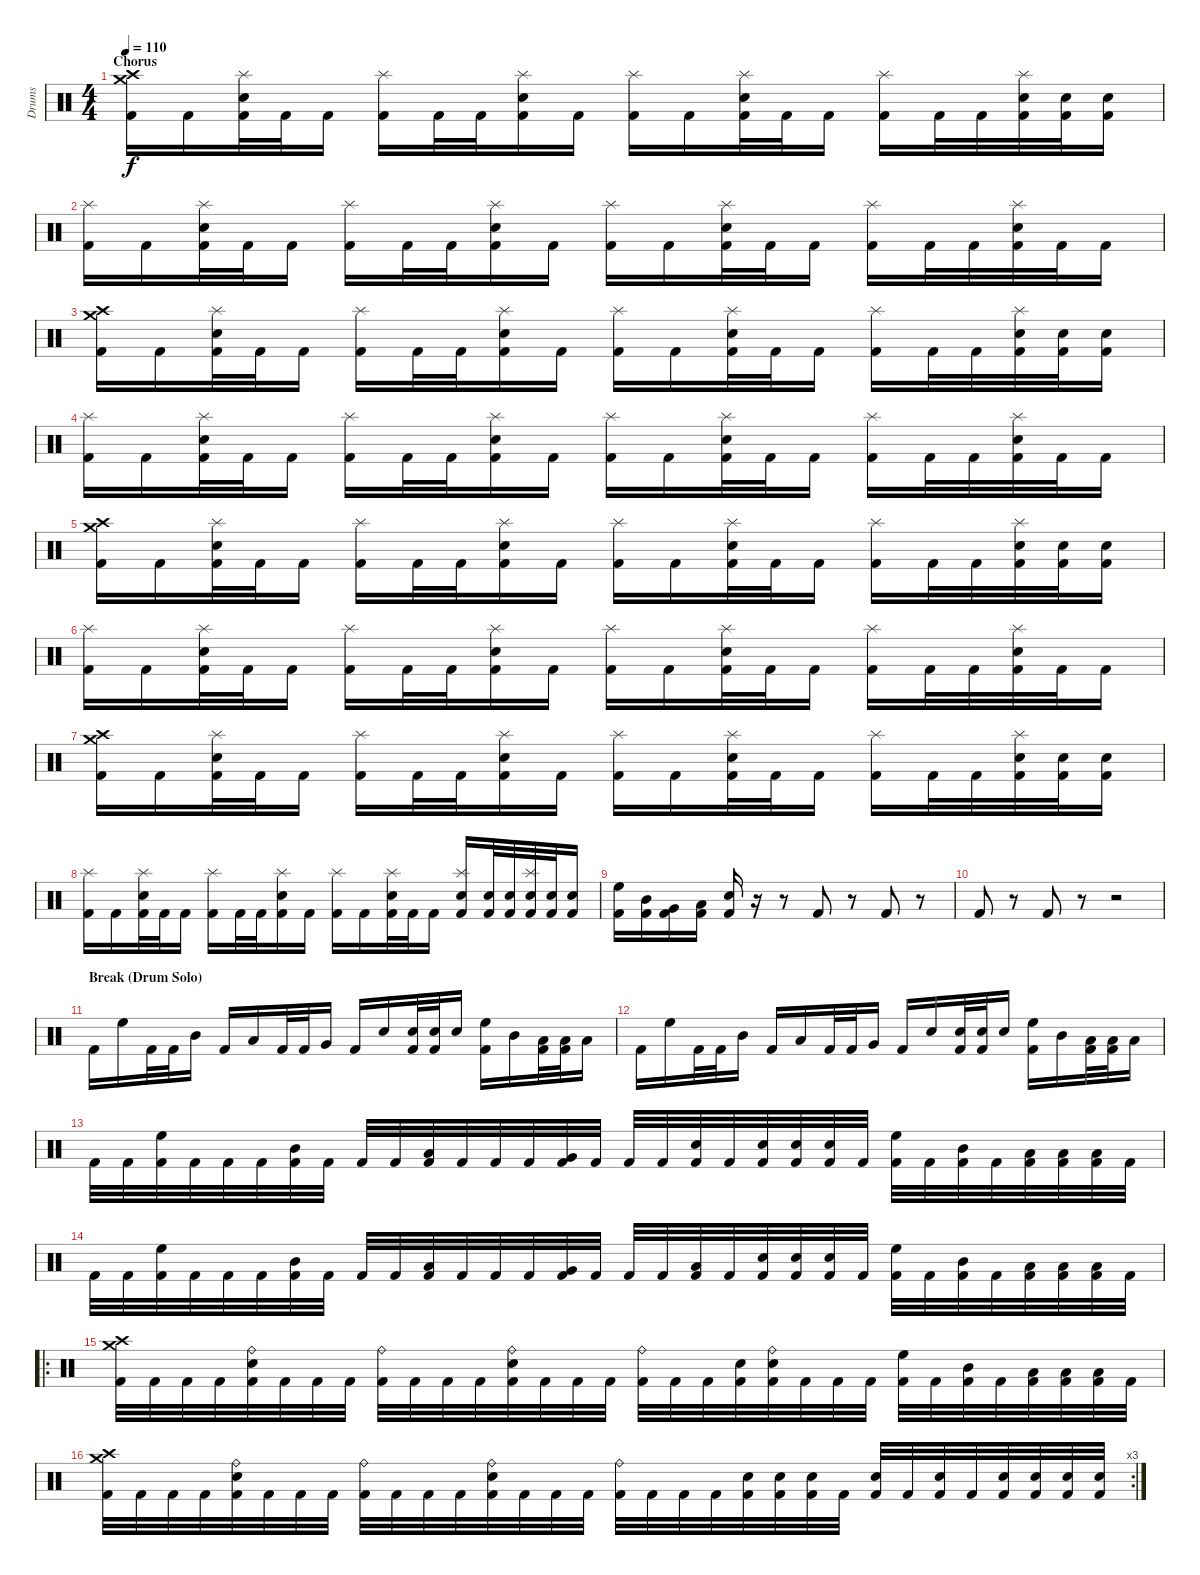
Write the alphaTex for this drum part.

\track ("Drums" "Drums") {instrument percussion}
\staff {score}
\articulation defaults
\ts (4 4)
\section ("" "Chorus")
\tempo 110
\clef neutral
\ks c
("Crash medium (hit)" "Crash high (hit)" "Kick (hit) 2").16{dy f} "Kick (hit) 2".16 ("Splash (hit)" "Electric Snare (hit)" "Kick (hit) 2").32 "Kick (hit) 2".32 "Kick (hit) 2".16 ("Splash (hit)" "Kick (hit) 2").16 "Kick (hit) 2".32 "Kick (hit) 2".32 ("Splash (hit)" "Electric Snare (hit)" "Kick (hit) 2").16 "Kick (hit) 2".16 ("Splash (hit)" "Kick (hit) 2").16 "Kick (hit) 2".16 ("Splash (hit)" "Electric Snare (hit)" "Kick (hit) 2").32 "Kick (hit) 2".32 "Kick (hit) 2".16 ("Splash (hit)" "Kick (hit) 2").16 "Kick (hit) 2".32 "Kick (hit) 2".32 ("Splash (hit)" "Electric Snare (hit)" "Kick (hit) 2").32 ("Electric Snare (hit)" "Kick (hit) 2").32 ("Electric Snare (hit)" "Kick (hit) 2").16 |
("Splash (hit)" "Kick (hit) 2").16 "Kick (hit) 2".16 ("Splash (hit)" "Electric Snare (hit)" "Kick (hit) 2").32 "Kick (hit) 2".32 "Kick (hit) 2".16 ("Splash (hit)" "Kick (hit) 2").16 "Kick (hit) 2".32 "Kick (hit) 2".32 ("Splash (hit)" "Electric Snare (hit)" "Kick (hit) 2").16 "Kick (hit) 2".16 ("Splash (hit)" "Kick (hit) 2").16 "Kick (hit) 2".16 ("Splash (hit)" "Electric Snare (hit)" "Kick (hit) 2").32 "Kick (hit) 2".32 "Kick (hit) 2".16 ("Splash (hit)" "Kick (hit) 2").16 "Kick (hit) 2".32 "Kick (hit) 2".32 ("Splash (hit)" "Electric Snare (hit)" "Kick (hit) 2").32 "Kick (hit) 2".32 "Kick (hit) 2".16 |
("Crash medium (hit)" "Crash high (hit)" "Kick (hit) 2").16 "Kick (hit) 2".16 ("Splash (hit)" "Electric Snare (hit)" "Kick (hit) 2").32 "Kick (hit) 2".32 "Kick (hit) 2".16 ("Splash (hit)" "Kick (hit) 2").16 "Kick (hit) 2".32 "Kick (hit) 2".32 ("Splash (hit)" "Electric Snare (hit)" "Kick (hit) 2").16 "Kick (hit) 2".16 ("Splash (hit)" "Kick (hit) 2").16 "Kick (hit) 2".16 ("Splash (hit)" "Electric Snare (hit)" "Kick (hit) 2").32 "Kick (hit) 2".32 "Kick (hit) 2".16 ("Splash (hit)" "Kick (hit) 2").16 "Kick (hit) 2".32 "Kick (hit) 2".32 ("Splash (hit)" "Electric Snare (hit)" "Kick (hit) 2").32 ("Electric Snare (hit)" "Kick (hit) 2").32 ("Electric Snare (hit)" "Kick (hit) 2").16 |
("Splash (hit)" "Kick (hit) 2").16 "Kick (hit) 2".16 ("Splash (hit)" "Electric Snare (hit)" "Kick (hit) 2").32 "Kick (hit) 2".32 "Kick (hit) 2".16 ("Splash (hit)" "Kick (hit) 2").16 "Kick (hit) 2".32 "Kick (hit) 2".32 ("Splash (hit)" "Electric Snare (hit)" "Kick (hit) 2").16 "Kick (hit) 2".16 ("Splash (hit)" "Kick (hit) 2").16 "Kick (hit) 2".16 ("Splash (hit)" "Electric Snare (hit)" "Kick (hit) 2").32 "Kick (hit) 2".32 "Kick (hit) 2".16 ("Splash (hit)" "Kick (hit) 2").16 "Kick (hit) 2".32 "Kick (hit) 2".32 ("Splash (hit)" "Electric Snare (hit)" "Kick (hit) 2").32 "Kick (hit) 2".32 "Kick (hit) 2".16 |
("Crash medium (hit)" "Crash high (hit)" "Kick (hit) 2").16 "Kick (hit) 2".16 ("Splash (hit)" "Electric Snare (hit)" "Kick (hit) 2").32 "Kick (hit) 2".32 "Kick (hit) 2".16 ("Splash (hit)" "Kick (hit) 2").16 "Kick (hit) 2".32 "Kick (hit) 2".32 ("Splash (hit)" "Electric Snare (hit)" "Kick (hit) 2").16 "Kick (hit) 2".16 ("Splash (hit)" "Kick (hit) 2").16 "Kick (hit) 2".16 ("Splash (hit)" "Electric Snare (hit)" "Kick (hit) 2").32 "Kick (hit) 2".32 "Kick (hit) 2".16 ("Splash (hit)" "Kick (hit) 2").16 "Kick (hit) 2".32 "Kick (hit) 2".32 ("Splash (hit)" "Electric Snare (hit)" "Kick (hit) 2").32 ("Electric Snare (hit)" "Kick (hit) 2").32 ("Electric Snare (hit)" "Kick (hit) 2").16 |
("Splash (hit)" "Kick (hit) 2").16 "Kick (hit) 2".16 ("Splash (hit)" "Electric Snare (hit)" "Kick (hit) 2").32 "Kick (hit) 2".32 "Kick (hit) 2".16 ("Splash (hit)" "Kick (hit) 2").16 "Kick (hit) 2".32 "Kick (hit) 2".32 ("Splash (hit)" "Electric Snare (hit)" "Kick (hit) 2").16 "Kick (hit) 2".16 ("Splash (hit)" "Kick (hit) 2").16 "Kick (hit) 2".16 ("Splash (hit)" "Electric Snare (hit)" "Kick (hit) 2").32 "Kick (hit) 2".32 "Kick (hit) 2".16 ("Splash (hit)" "Kick (hit) 2").16 "Kick (hit) 2".32 "Kick (hit) 2".32 ("Splash (hit)" "Electric Snare (hit)" "Kick (hit) 2").32 "Kick (hit) 2".32 "Kick (hit) 2".16 |
("Crash medium (hit)" "Crash high (hit)" "Kick (hit) 2").16 "Kick (hit) 2".16 ("Splash (hit)" "Electric Snare (hit)" "Kick (hit) 2").32 "Kick (hit) 2".32 "Kick (hit) 2".16 ("Splash (hit)" "Kick (hit) 2").16 "Kick (hit) 2".32 "Kick (hit) 2".32 ("Splash (hit)" "Electric Snare (hit)" "Kick (hit) 2").16 "Kick (hit) 2".16 ("Splash (hit)" "Kick (hit) 2").16 "Kick (hit) 2".16 ("Splash (hit)" "Electric Snare (hit)" "Kick (hit) 2").32 "Kick (hit) 2".32 "Kick (hit) 2".16 ("Splash (hit)" "Kick (hit) 2").16 "Kick (hit) 2".32 "Kick (hit) 2".32 ("Splash (hit)" "Electric Snare (hit)" "Kick (hit) 2").32 ("Electric Snare (hit)" "Kick (hit) 2").32 ("Electric Snare (hit)" "Kick (hit) 2").16 |
("Splash (hit)" "Kick (hit) 2").16 "Kick (hit) 2".16 ("Splash (hit)" "Electric Snare (hit)" "Kick (hit) 2").32 "Kick (hit) 2".32 "Kick (hit) 2".16 ("Splash (hit)" "Kick (hit) 2").16 "Kick (hit) 2".32 "Kick (hit) 2".32 ("Splash (hit)" "Electric Snare (hit)" "Kick (hit) 2").16 "Kick (hit) 2".16 ("Splash (hit)" "Kick (hit) 2").16 "Kick (hit) 2".16 ("Splash (hit)" "Electric Snare (hit)" "Kick (hit) 2").32 "Kick (hit) 2".32 "Kick (hit) 2".16 ("Splash (hit)" "Electric Snare (hit)" "Kick (hit) 2").16 ("Electric Snare (hit)" "Kick (hit) 2").32 ("Electric Snare (hit)" "Kick (hit) 2").32 ("Splash (hit)" "Electric Snare (hit)" "Kick (hit) 2").32 ("Electric Snare (hit)" "Kick (hit) 2").32 ("Electric Snare (hit)" "Kick (hit) 2").16 |
("High Floor Tom (hit)" "Kick (hit) 2").16 ("Mid Tom (hit)" "Kick (hit) 2").16 ("Very Low Tom (hit)" "Kick (hit) 2").16 ("Low Floor Tom (hit)" "Kick (hit) 2").16 ("Electric Snare (hit)" "Kick (hit) 2").16 r.16 r.8 "Kick (hit) 2".8 r.8 "Kick (hit) 2".8 r.8 |
"Kick (hit) 2".8 r.8 "Kick (hit) 2".8 r.8 r.2 |
\section ("" "Break (Drum Solo)")
"Kick (hit) 2".16 "High Floor Tom (hit)".16 "Kick (hit) 2".32 "Kick (hit) 2".32 "Mid Tom (hit)".16 "Kick (hit) 2".16 "Low Tom (hit)".16 "Kick (hit) 2".32 "Kick (hit) 2".32 "Very Low Tom (hit)".16 "Kick (hit) 2".16 "Electric Snare (hit)".16 ("Electric Snare (hit)" "Kick (hit) 2").32 ("Electric Snare (hit)" "Kick (hit) 2").32 "Electric Snare (hit)".16 ("High Floor Tom (hit)" "Kick (hit) 2").16 "Mid Tom (hit)".16 ("Low Tom (hit)" "Kick (hit) 2").32 ("Low Tom (hit)" "Kick (hit) 2").32 "Low Floor Tom (hit)".16 |
"Kick (hit) 2".16 "High Floor Tom (hit)".16 "Kick (hit) 2".32 "Kick (hit) 2".32 "Mid Tom (hit)".16 "Kick (hit) 2".16 "Low Tom (hit)".16 "Kick (hit) 2".32 "Kick (hit) 2".32 "Very Low Tom (hit)".16 "Kick (hit) 2".16 "Electric Snare (hit)".16 ("Electric Snare (hit)" "Kick (hit) 2").32 ("Electric Snare (hit)" "Kick (hit) 2").32 "Electric Snare (hit)".16 ("High Floor Tom (hit)" "Kick (hit) 2").16 "Mid Tom (hit)".16 ("Low Tom (hit)" "Kick (hit) 2").32 ("Low Tom (hit)" "Kick (hit) 2").32 "Low Floor Tom (hit)".16 |
"Kick (hit) 2".32 "Kick (hit) 2".32 ("High Floor Tom (hit)" "Kick (hit) 2").32 "Kick (hit) 2".32 "Kick (hit) 2".32 "Kick (hit) 2".32 ("Mid Tom (hit)" "Kick (hit) 2").32 "Kick (hit) 2".32 "Kick (hit) 2".32 "Kick (hit) 2".32 ("Low Tom (hit)" "Kick (hit) 2").32 "Kick (hit) 2".32 "Kick (hit) 2".32 "Kick (hit) 2".32 ("Very Low Tom (hit)" "Kick (hit) 2").32 "Kick (hit) 2".32 "Kick (hit) 2".32 "Kick (hit) 2".32 ("Electric Snare (hit)" "Kick (hit) 2").32 "Kick (hit) 2".32 ("Electric Snare (hit)" "Kick (hit) 2").32 ("Electric Snare (hit)" "Kick (hit) 2").32 ("Electric Snare (hit)" "Kick (hit) 2").32 "Kick (hit) 2".32 ("High Floor Tom (hit)" "Kick (hit) 2").32 "Kick (hit) 2".32 ("Mid Tom (hit)" "Kick (hit) 2").32 "Kick (hit) 2".32 ("Low Tom (hit)" "Kick (hit) 2").32 ("Low Tom (hit)" "Kick (hit) 2").32 ("Low Floor Tom (hit)" "Kick (hit) 2").32 "Kick (hit) 2".32 |
"Kick (hit) 2".32 "Kick (hit) 2".32 ("High Floor Tom (hit)" "Kick (hit) 2").32 "Kick (hit) 2".32 "Kick (hit) 2".32 "Kick (hit) 2".32 ("Mid Tom (hit)" "Kick (hit) 2").32 "Kick (hit) 2".32 "Kick (hit) 2".32 "Kick (hit) 2".32 ("Low Tom (hit)" "Kick (hit) 2").32 "Kick (hit) 2".32 "Kick (hit) 2".32 "Kick (hit) 2".32 ("Very Low Tom (hit)" "Kick (hit) 2").32 "Kick (hit) 2".32 "Kick (hit) 2".32 "Kick (hit) 2".32 ("Low Floor Tom (hit)" "Kick (hit) 2").32 "Kick (hit) 2".32 ("Electric Snare (hit)" "Kick (hit) 2").32 ("Electric Snare (hit)" "Kick (hit) 2").32 ("Electric Snare (hit)" "Kick (hit) 2").32 "Kick (hit) 2".32 ("High Floor Tom (hit)" "Kick (hit) 2").32 "Kick (hit) 2".32 ("Mid Tom (hit)" "Kick (hit) 2").32 "Kick (hit) 2".32 ("Low Tom (hit)" "Kick (hit) 2").32 ("Low Tom (hit)" "Kick (hit) 2").32 ("Low Floor Tom (hit)" "Kick (hit) 2").32 "Kick (hit) 2".32 |
\ro
("Crash medium (hit)" "Crash high (hit)" "Kick (hit) 2").32 "Kick (hit) 2".32 "Kick (hit) 2".32 "Kick (hit) 2".32 ("Ride (bell)" "Electric Snare (hit)" "Kick (hit) 2").32 "Kick (hit) 2".32 "Kick (hit) 2".32 "Kick (hit) 2".32 ("Ride (bell)" "Kick (hit) 2").32 "Kick (hit) 2".32 "Kick (hit) 2".32 "Kick (hit) 2".32 ("Ride (bell)" "Electric Snare (hit)" "Kick (hit) 2").32 "Kick (hit) 2".32 "Kick (hit) 2".32 "Kick (hit) 2".32 ("Ride (bell)" "Kick (hit) 2").32 "Kick (hit) 2".32 "Kick (hit) 2".32 ("Electric Snare (hit)" "Kick (hit) 2").32 ("Ride (bell)" "Electric Snare (hit)" "Kick (hit) 2").32 "Kick (hit) 2".32 "Kick (hit) 2".32 "Kick (hit) 2".32 ("High Floor Tom (hit)" "Kick (hit) 2").32 "Kick (hit) 2".32 ("Mid Tom (hit)" "Kick (hit) 2").32 "Kick (hit) 2".32 ("Low Tom (hit)" "Kick (hit) 2").32 ("Low Tom (hit)" "Kick (hit) 2").32 ("Low Floor Tom (hit)" "Kick (hit) 2").32 "Kick (hit) 2".32 |
\rc 3
("Crash medium (hit)" "Crash high (hit)" "Kick (hit) 2").32 "Kick (hit) 2".32 "Kick (hit) 2".32 "Kick (hit) 2".32 ("Ride (bell)" "Electric Snare (hit)" "Kick (hit) 2").32 "Kick (hit) 2".32 "Kick (hit) 2".32 "Kick (hit) 2".32 ("Ride (bell)" "Kick (hit) 2").32 "Kick (hit) 2".32 "Kick (hit) 2".32 "Kick (hit) 2".32 ("Ride (bell)" "Electric Snare (hit)" "Kick (hit) 2").32 "Kick (hit) 2".32 "Kick (hit) 2".32 "Kick (hit) 2".32 ("Ride (bell)" "Kick (hit) 2").32 "Kick (hit) 2".32 "Kick (hit) 2".32 "Kick (hit) 2".32 ("Electric Snare (hit)" "Kick (hit) 2").32 ("Electric Snare (hit)" "Kick (hit) 2").32 ("Electric Snare (hit)" "Kick (hit) 2").32 "Kick (hit) 2".32 ("Electric Snare (hit)" "Kick (hit) 2").32 "Kick (hit) 2".32 ("Electric Snare (hit)" "Kick (hit) 2").32 "Kick (hit) 2".32 ("Electric Snare (hit)" "Kick (hit) 2").32 ("Electric Snare (hit)" "Kick (hit) 2").32 ("Electric Snare (hit)" "Kick (hit) 2").32 ("Electric Snare (hit)" "Kick (hit) 2").32
